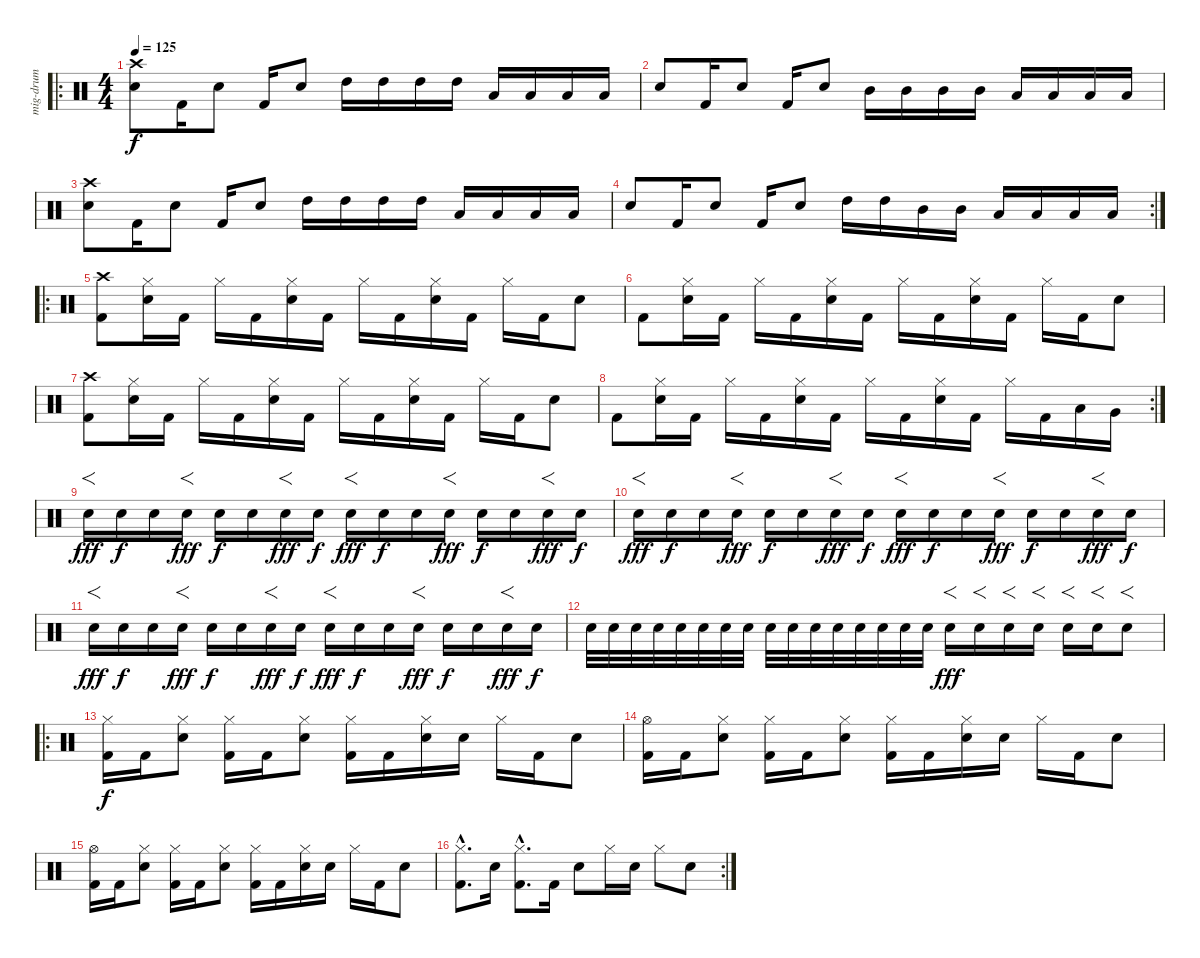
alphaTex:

\track ("mig-drum" "mig-drum") {instrument percussion}
\staff {score}
\articulation defaults
\ro
\ts (4 4)
\tempo 125
\clef neutral
\ks c
("Crash high (hit)" "Snare (hit) 2").8{dy f} "Kick (hit) 2".16 "Snare (hit) 2".8 "Kick (hit) 2".16 "Snare (hit) 2".8 "High Tom (hit)".16 "High Tom (hit)".16 "High Tom (hit)".16 "High Tom (hit)".16 "Low Tom (hit)".16 "Low Tom (hit)".16 "Low Tom (hit)".16 "Low Tom (hit)".16 |
"Snare (hit) 2".8 "Kick (hit) 2".16 "Snare (hit) 2".8 "Kick (hit) 2".16 "Snare (hit) 2".8 "Mid Tom (hit)".16 "Mid Tom (hit)".16 "Mid Tom (hit)".16 "Mid Tom (hit)".16 "Low Tom (hit)".16 "Low Tom (hit)".16 "Low Tom (hit)".16 "Low Tom (hit)".16 |
("Crash high (hit)" "Snare (hit) 2").8 "Kick (hit) 2".16 "Snare (hit) 2".8 "Kick (hit) 2".16 "Snare (hit) 2".8 "High Tom (hit)".16 "High Tom (hit)".16 "High Tom (hit)".16 "High Tom (hit)".16 "Low Tom (hit)".16 "Low Tom (hit)".16 "Low Tom (hit)".16 "Low Tom (hit)".16 |
\rc 2 "Snare (hit) 2".8 "Kick (hit) 2".16 "Snare (hit) 2".8 "Kick (hit) 2".16 "Snare (hit) 2".8 "High Tom (hit)".16 "High Tom (hit)".16 "Mid Tom (hit)".16 "Mid Tom (hit)".16 "Low Tom (hit)".16 "Low Tom (hit)".16 "Low Floor Tom (hit)".16 "Low Floor Tom (hit)".16
|
\ro
("Crash high (hit)" "Kick (hit) 2").8 ("Hi-Hat (closed)" "Snare (hit) 2").16 "Kick (hit) 2".16 "Hi-Hat (closed)".16 "Kick (hit) 2".16 ("Hi-Hat (closed)" "Snare (hit) 2").16 "Kick (hit) 2".16 "Hi-Hat (closed)".16 "Kick (hit) 2".16 ("Hi-Hat (closed)" "Snare (hit) 2").16 "Kick (hit) 2".16 "Hi-Hat (closed)".16 "Kick (hit) 2".16 "Snare (hit) 2".8 |
"Kick (hit) 2".8 ("Hi-Hat (closed)" "Snare (hit) 2").16 "Kick (hit) 2".16 "Hi-Hat (closed)".16 "Kick (hit) 2".16 ("Hi-Hat (closed)" "Snare (hit) 2").16 "Kick (hit) 2".16 "Hi-Hat (closed)".16 "Kick (hit) 2".16 ("Hi-Hat (closed)" "Snare (hit) 2").16 "Kick (hit) 2".16 "Hi-Hat (closed)".16 "Kick (hit) 2".16 "Snare (hit) 2".8 |
("Crash high (hit)" "Kick (hit) 2").8 ("Hi-Hat (closed)" "Snare (hit) 2").16 "Kick (hit) 2".16 "Hi-Hat (closed)".16 "Kick (hit) 2".16 ("Hi-Hat (closed)" "Snare (hit) 2").16 "Kick (hit) 2".16 "Hi-Hat (closed)".16 "Kick (hit) 2".16 ("Hi-Hat (closed)" "Snare (hit) 2").16 "Kick (hit) 2".16 "Hi-Hat (closed)".16 "Kick (hit) 2".16 "Snare (hit) 2".8 |
\rc 2 "Kick (hit) 2".8
("Hi-Hat (closed)" "Snare (hit) 2").16 "Kick (hit) 2".16 "Hi-Hat (closed)".16 "Kick (hit) 2".16 ("Hi-Hat (closed)" "Snare (hit) 2").16 "Kick (hit) 2".16 "Hi-Hat (closed)".16 "Kick (hit) 2".16 ("Hi-Hat (closed)" "Snare (hit) 2").16 "Kick (hit) 2".16 "Hi-Hat (closed)".16 "Kick (hit) 2".16 "Low Tom (hit)".16 "Very Low Tom (hit)".16 |
"Snare (hit) 2".16{f dy fff} "Snare (hit) 2".16{dy f} "Snare (hit) 2".16 "Snare (hit) 2".16{f dy fff} "Snare (hit) 2".16{dy f} "Snare (hit) 2".16 "Snare (hit) 2".16{f dy fff} "Snare (hit) 2".16{dy f} "Snare (hit) 2".16{f dy fff} "Snare (hit) 2".16{dy f} "Snare (hit) 2".16 "Snare (hit) 2".16{f dy fff} "Snare (hit) 2".16{dy f} "Snare (hit) 2".16 "Snare (hit) 2".16{f dy fff} "Snare (hit) 2".16{dy f} |
"Snare (hit) 2".16{f dy fff} "Snare (hit) 2".16{dy f} "Snare (hit) 2".16 "Snare (hit) 2".16{f dy fff} "Snare (hit) 2".16{dy f} "Snare (hit) 2".16 "Snare (hit) 2".16{f dy fff} "Snare (hit) 2".16{dy f} "Snare (hit) 2".16{f dy fff} "Snare (hit) 2".16{dy f} "Snare (hit) 2".16 "Snare (hit) 2".16{f dy fff} "Snare (hit) 2".16{dy f} "Snare (hit) 2".16 "Snare (hit) 2".16{f dy fff} "Snare (hit) 2".16{dy f} |
"Snare (hit) 2".16{f dy fff} "Snare (hit) 2".16{dy f} "Snare (hit) 2".16 "Snare (hit) 2".16{f dy fff} "Snare (hit) 2".16{dy f} "Snare (hit) 2".16 "Snare (hit) 2".16{f dy fff} "Snare (hit) 2".16{dy f} "Snare (hit) 2".16{f dy fff} "Snare (hit) 2".16{dy f} "Snare (hit) 2".16 "Snare (hit) 2".16{f dy fff} "Snare (hit) 2".16{dy f} "Snare (hit) 2".16 "Snare (hit) 2".16{f dy fff} "Snare (hit) 2".16{dy f} |
"Snare (hit) 2".32 "Snare (hit) 2".32 "Snare (hit) 2".32 "Snare (hit) 2".32 "Snare (hit) 2".32 "Snare (hit) 2".32 "Snare (hit) 2".32 "Snare (hit) 2".32 "Snare (hit) 2".32 "Snare (hit) 2".32 "Snare (hit) 2".32 "Snare (hit) 2".32 "Snare (hit) 2".32 "Snare (hit) 2".32 "Snare (hit) 2".32 "Snare (hit) 2".32 "Snare (hit) 2".16{f dy fff} "Snare (hit) 2".16{f} "Snare (hit) 2".16{f} "Snare (hit) 2".16{f} "Snare (hit) 2".16{f} "Snare (hit) 2".16{f} "Snare (hit) 2".8{f} |
\ro
("Hi-Hat (closed)" "Kick (hit) 2").16{dy f} "Kick (hit) 2".16 ("Hi-Hat (closed)" "Snare (hit) 2").8 ("Hi-Hat (closed)" "Kick (hit) 2").16 "Kick (hit) 2".16 ("Hi-Hat (closed)" "Snare (hit) 2").8 ("Hi-Hat (closed)" "Kick (hit) 2").16 "Kick (hit) 2".16 ("Hi-Hat (closed)" "Snare (hit) 2").16 "Snare (hit) 2".16 "Hi-Hat (closed)".16 "Kick (hit) 2".16 "Snare (hit) 2".8 |
("Hi-Hat (open)" "Kick (hit) 2").16 "Kick (hit) 2".16 ("Hi-Hat (closed)" "Snare (hit) 2").8 ("Hi-Hat (closed)" "Kick (hit) 2").16 "Kick (hit) 2".16 ("Hi-Hat (closed)" "Snare (hit) 2").8 ("Hi-Hat (closed)" "Kick (hit) 2").16 "Kick (hit) 2".16 ("Hi-Hat (closed)" "Snare (hit) 2").16 "Snare (hit) 2".16 "Hi-Hat (closed)".16 "Kick (hit) 2".16 "Snare (hit) 2".8 |
("Hi-Hat (open)" "Kick (hit) 2").16 "Kick (hit) 2".16 ("Hi-Hat (closed)" "Snare (hit) 2").8 ("Hi-Hat (closed)" "Kick (hit) 2").16 "Kick (hit) 2".16 ("Hi-Hat (closed)" "Snare (hit) 2").8 ("Hi-Hat (closed)" "Kick (hit) 2").16 "Kick (hit) 2".16 ("Hi-Hat (closed)" "Snare (hit) 2").16 "Snare (hit) 2".16 "Hi-Hat (closed)".16 "Kick (hit) 2".16 "Snare (hit) 2".8 |
\rc 2
("Hi-Hat (closed)"{hac} "Kick (hit) 2"{hac}).8{d} "Snare (hit) 2".16 ("Hi-Hat (closed)"{hac} "Kick (hit) 2"{hac}).8{d} "Kick (hit) 2".16 "Snare (hit) 2".8 "Hi-Hat (closed)".16 "Snare (hit) 2".16 "Hi-Hat (closed)".8 "Snare (hit) 2".8
